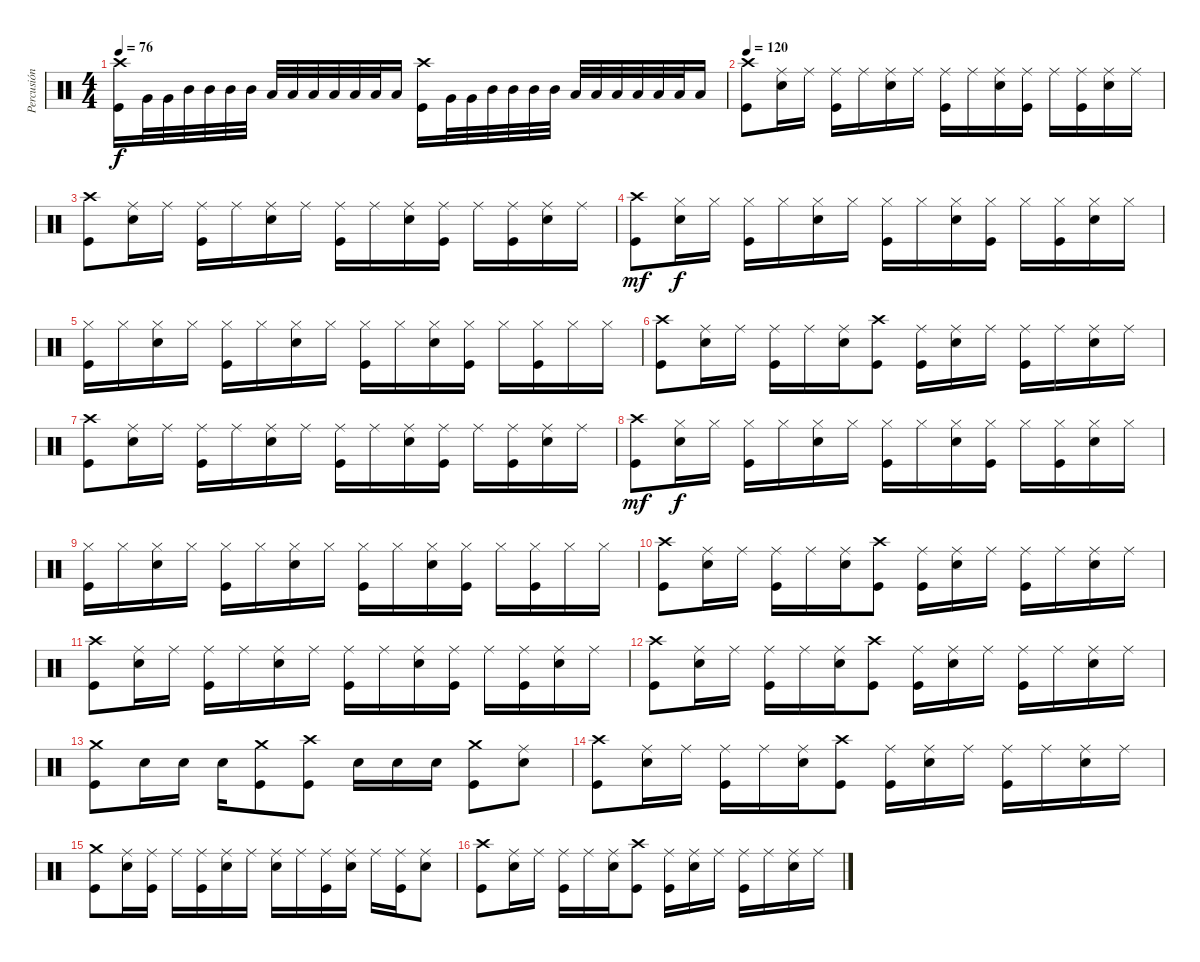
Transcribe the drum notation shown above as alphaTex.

\track ("Percusión" "Percusión") {instrument percussion}
\staff {score}
\articulation defaults
\ts (4 4)
\tempo 76
\clef neutral
\ks c
("Kick (hit)" "Crash high (hit)").16{dy f} "Very Low Tom (hit)".32 "Very Low Tom (hit)".32 "Mid Tom (hit)".32 "Mid Tom (hit)".32 "Mid Tom (hit)".32 "Mid Tom (hit)".32 "Low Tom (hit)".32 "Low Tom (hit)".32 "Low Tom (hit)".32 "Low Tom (hit)".32 "Low Tom (hit)".32 "Low Tom (hit)".32 "Low Tom (hit)".16 ("Kick (hit)" "Crash high (hit)").16 "Very Low Tom (hit)".32 "Very Low Tom (hit)".32 "Mid Tom (hit)".32 "Mid Tom (hit)".32 "Mid Tom (hit)".32 "Mid Tom (hit)".32 "Low Tom (hit)".32 "Low Tom (hit)".32 "Low Tom (hit)".32 "Low Tom (hit)".32 "Low Tom (hit)".32 "Low Tom (hit)".32 "Low Tom (hit)".16 |
\tempo 120
("Kick (hit)" "Crash high (hit)").8 ("Snare (hit) 2" "Ride (middle)").16 "Ride (middle)".16 ("Kick (hit)" "Ride (middle)").16 "Ride (middle)".16 ("Snare (hit) 2" "Ride (middle)").16 "Ride (middle)".16 ("Kick (hit)" "Ride (middle)").16 "Ride (middle)".16 ("Snare (hit) 2" "Ride (middle)").16 ("Kick (hit)" "Ride (middle)").16 "Ride (middle)".16 ("Kick (hit)" "Ride (middle)").16 ("Snare (hit) 2" "Ride (middle)").16 "Ride (middle)".16 |
("Kick (hit)" "Crash high (hit)").8 ("Snare (hit) 2" "Ride (middle)").16 "Ride (middle)".16 ("Kick (hit)" "Ride (middle)").16 "Ride (middle)".16 ("Snare (hit) 2" "Ride (middle)").16 "Ride (middle)".16 ("Kick (hit)" "Ride (middle)").16 "Ride (middle)".16 ("Snare (hit) 2" "Ride (middle)").16 ("Kick (hit)" "Ride (middle)").16 "Ride (middle)".16 ("Kick (hit)" "Ride (middle)").16 ("Snare (hit) 2" "Ride (middle)").16 "Ride (middle)".16 |
("Kick (hit)" "Crash high (hit)").8{dy mf} ("Snare (hit) 2" "Hi-Hat (closed)").16{dy f} "Hi-Hat (closed)".16 ("Kick (hit)" "Hi-Hat (closed)").16 "Hi-Hat (closed)".16 ("Snare (hit) 2" "Hi-Hat (closed)").16 "Hi-Hat (closed)".16 ("Kick (hit)" "Hi-Hat (closed)").16 "Hi-Hat (closed)".16 ("Snare (hit) 2" "Hi-Hat (closed)").16 ("Kick (hit)" "Hi-Hat (closed)").16 "Hi-Hat (closed)".16 ("Kick (hit)" "Hi-Hat (closed)").16 ("Snare (hit) 2" "Hi-Hat (closed)").16 "Hi-Hat (closed)".16 |
("Kick (hit)" "Hi-Hat (closed)").16 "Hi-Hat (closed)".16 ("Snare (hit) 2" "Hi-Hat (closed)").16 "Hi-Hat (closed)".16 ("Kick (hit)" "Hi-Hat (closed)").16 "Hi-Hat (closed)".16 ("Snare (hit) 2" "Hi-Hat (closed)").16 "Hi-Hat (closed)".16 ("Kick (hit)" "Hi-Hat (closed)").16 "Hi-Hat (closed)".16 ("Snare (hit) 2" "Hi-Hat (closed)").16 ("Kick (hit)" "Hi-Hat (closed)").16 "Hi-Hat (closed)".16 ("Kick (hit)" "Hi-Hat (closed)").16 "Hi-Hat (closed)".16 "Hi-Hat (closed)".16 |
("Kick (hit)" "Crash high (hit)").8 ("Snare (hit) 2" "Ride (middle)").16 "Ride (middle)".16 ("Kick (hit)" "Ride (middle)").16 "Ride (middle)".16 ("Snare (hit) 2" "Ride (middle)").16 ("Kick (hit)" "Crash high (hit)").8 ("Kick (hit)" "Ride (middle)").16 ("Snare (hit) 2" "Ride (middle)").16 "Ride (middle)".16 ("Kick (hit)" "Ride (middle)").16 "Ride (middle)".16 ("Snare (hit) 2" "Ride (middle)").16 "Ride (middle)".16 |
("Kick (hit)" "Crash high (hit)").8 ("Snare (hit) 2" "Ride (middle)").16 "Ride (middle)".16 ("Kick (hit)" "Ride (middle)").16 "Ride (middle)".16 ("Snare (hit) 2" "Ride (middle)").16 "Ride (middle)".16 ("Kick (hit)" "Ride (middle)").16 "Ride (middle)".16 ("Snare (hit) 2" "Ride (middle)").16 ("Kick (hit)" "Ride (middle)").16 "Ride (middle)".16 ("Kick (hit)" "Ride (middle)").16 ("Snare (hit) 2" "Ride (middle)").16 "Ride (middle)".16 |
("Kick (hit)" "Crash high (hit)").8{dy mf} ("Snare (hit) 2" "Hi-Hat (closed)").16{dy f} "Hi-Hat (closed)".16 ("Kick (hit)" "Hi-Hat (closed)").16 "Hi-Hat (closed)".16 ("Snare (hit) 2" "Hi-Hat (closed)").16 "Hi-Hat (closed)".16 ("Kick (hit)" "Hi-Hat (closed)").16 "Hi-Hat (closed)".16 ("Snare (hit) 2" "Hi-Hat (closed)").16 ("Kick (hit)" "Hi-Hat (closed)").16 "Hi-Hat (closed)".16 ("Kick (hit)" "Hi-Hat (closed)").16 ("Snare (hit) 2" "Hi-Hat (closed)").16 "Hi-Hat (closed)".16 |
("Kick (hit)" "Hi-Hat (closed)").16 "Hi-Hat (closed)".16 ("Snare (hit) 2" "Hi-Hat (closed)").16 "Hi-Hat (closed)".16 ("Kick (hit)" "Hi-Hat (closed)").16 "Hi-Hat (closed)".16 ("Snare (hit) 2" "Hi-Hat (closed)").16 "Hi-Hat (closed)".16 ("Kick (hit)" "Hi-Hat (closed)").16 "Hi-Hat (closed)".16 ("Snare (hit) 2" "Hi-Hat (closed)").16 ("Kick (hit)" "Hi-Hat (closed)").16 "Hi-Hat (closed)".16 ("Kick (hit)" "Hi-Hat (closed)").16 "Hi-Hat (closed)".16 "Hi-Hat (closed)".16 |
("Kick (hit)" "Crash high (hit)").8 ("Snare (hit) 2" "Ride (middle)").16 "Ride (middle)".16 ("Kick (hit)" "Ride (middle)").16 "Ride (middle)".16 ("Snare (hit) 2" "Ride (middle)").16 ("Kick (hit)" "Crash high (hit)").8 ("Kick (hit)" "Ride (middle)").16 ("Snare (hit) 2" "Ride (middle)").16 "Ride (middle)".16 ("Kick (hit)" "Ride (middle)").16 "Ride (middle)".16 ("Snare (hit) 2" "Ride (middle)").16 "Ride (middle)".16 |
("Kick (hit)" "Crash high (hit)").8 ("Snare (hit) 2" "Ride (middle)").16 "Ride (middle)".16 ("Kick (hit)" "Ride (middle)").16 "Ride (middle)".16 ("Snare (hit) 2" "Ride (middle)").16 "Ride (middle)".16 ("Kick (hit)" "Ride (middle)").16 "Ride (middle)".16 ("Snare (hit) 2" "Ride (middle)").16 ("Kick (hit)" "Ride (middle)").16 "Ride (middle)".16 ("Kick (hit)" "Ride (middle)").16 ("Snare (hit) 2" "Ride (middle)").16 "Ride (middle)".16 |
("Kick (hit)" "Crash high (hit)").8 ("Snare (hit) 2" "Ride (middle)").16 "Ride (middle)".16 ("Kick (hit)" "Ride (middle)").16 "Ride (middle)".16 ("Snare (hit) 2" "Ride (middle)").16 ("Kick (hit)" "Crash high (hit)").8 ("Kick (hit)" "Ride (middle)").16 ("Snare (hit) 2" "Ride (middle)").16 "Ride (middle)".16 ("Kick (hit)" "Ride (middle)").16 "Ride (middle)".16 ("Snare (hit) 2" "Ride (middle)").16 "Ride (middle)".16 |
("Kick (hit)" "Crash medium (hit)").8 "Snare (hit) 2".16 "Snare (hit) 2".16 "Snare (hit) 2".16 ("Kick (hit)" "Crash medium (hit)").8 ("Kick (hit)" "Crash high (hit)").8 "Snare (hit) 2".16 "Snare (hit) 2".16 "Snare (hit) 2".16 ("Kick (hit)" "Crash medium (hit)").8 ("Snare (hit) 2" "Ride (middle)").8 |
("Kick (hit)" "Crash high (hit)").8 ("Snare (hit) 2" "Ride (middle)").16 "Ride (middle)".16 ("Kick (hit)" "Ride (middle)").16 "Ride (middle)".16 ("Snare (hit) 2" "Ride (middle)").16 ("Kick (hit)" "Crash high (hit)").8 ("Kick (hit)" "Ride (middle)").16 ("Snare (hit) 2" "Ride (middle)").16 "Ride (middle)".16 ("Kick (hit)" "Ride (middle)").16 "Ride (middle)".16 ("Snare (hit) 2" "Ride (middle)").16 "Ride (middle)".16 |
("Kick (hit)" "Crash medium (hit)").8 ("Snare (hit) 2" "Ride (middle)").16 ("Kick (hit)" "Ride (middle)").16 "Ride (middle)".16 ("Kick (hit)" "Ride (middle)").16 ("Snare (hit) 2" "Ride (middle)").16 "Ride (middle)".16 ("Snare (hit) 2" "Ride (middle)").16 "Ride (middle)".16 ("Kick (hit)" "Ride (middle)").16 ("Snare (hit) 2" "Ride (middle)").16 "Ride (middle)".16 ("Kick (hit)" "Ride (middle)").16 ("Snare (hit) 2" "Ride (middle)").8 |
("Kick (hit)" "Crash high (hit)").8 ("Snare (hit) 2" "Ride (middle)").16 "Ride (middle)".16 ("Kick (hit)" "Ride (middle)").16 "Ride (middle)".16 ("Snare (hit) 2" "Ride (middle)").16 ("Kick (hit)" "Crash high (hit)").8 ("Kick (hit)" "Ride (middle)").16 ("Snare (hit) 2" "Ride (middle)").16 "Ride (middle)".16 ("Kick (hit)" "Ride (middle)").16 "Ride (middle)".16 ("Snare (hit) 2" "Ride (middle)").16 "Ride (middle)".16
